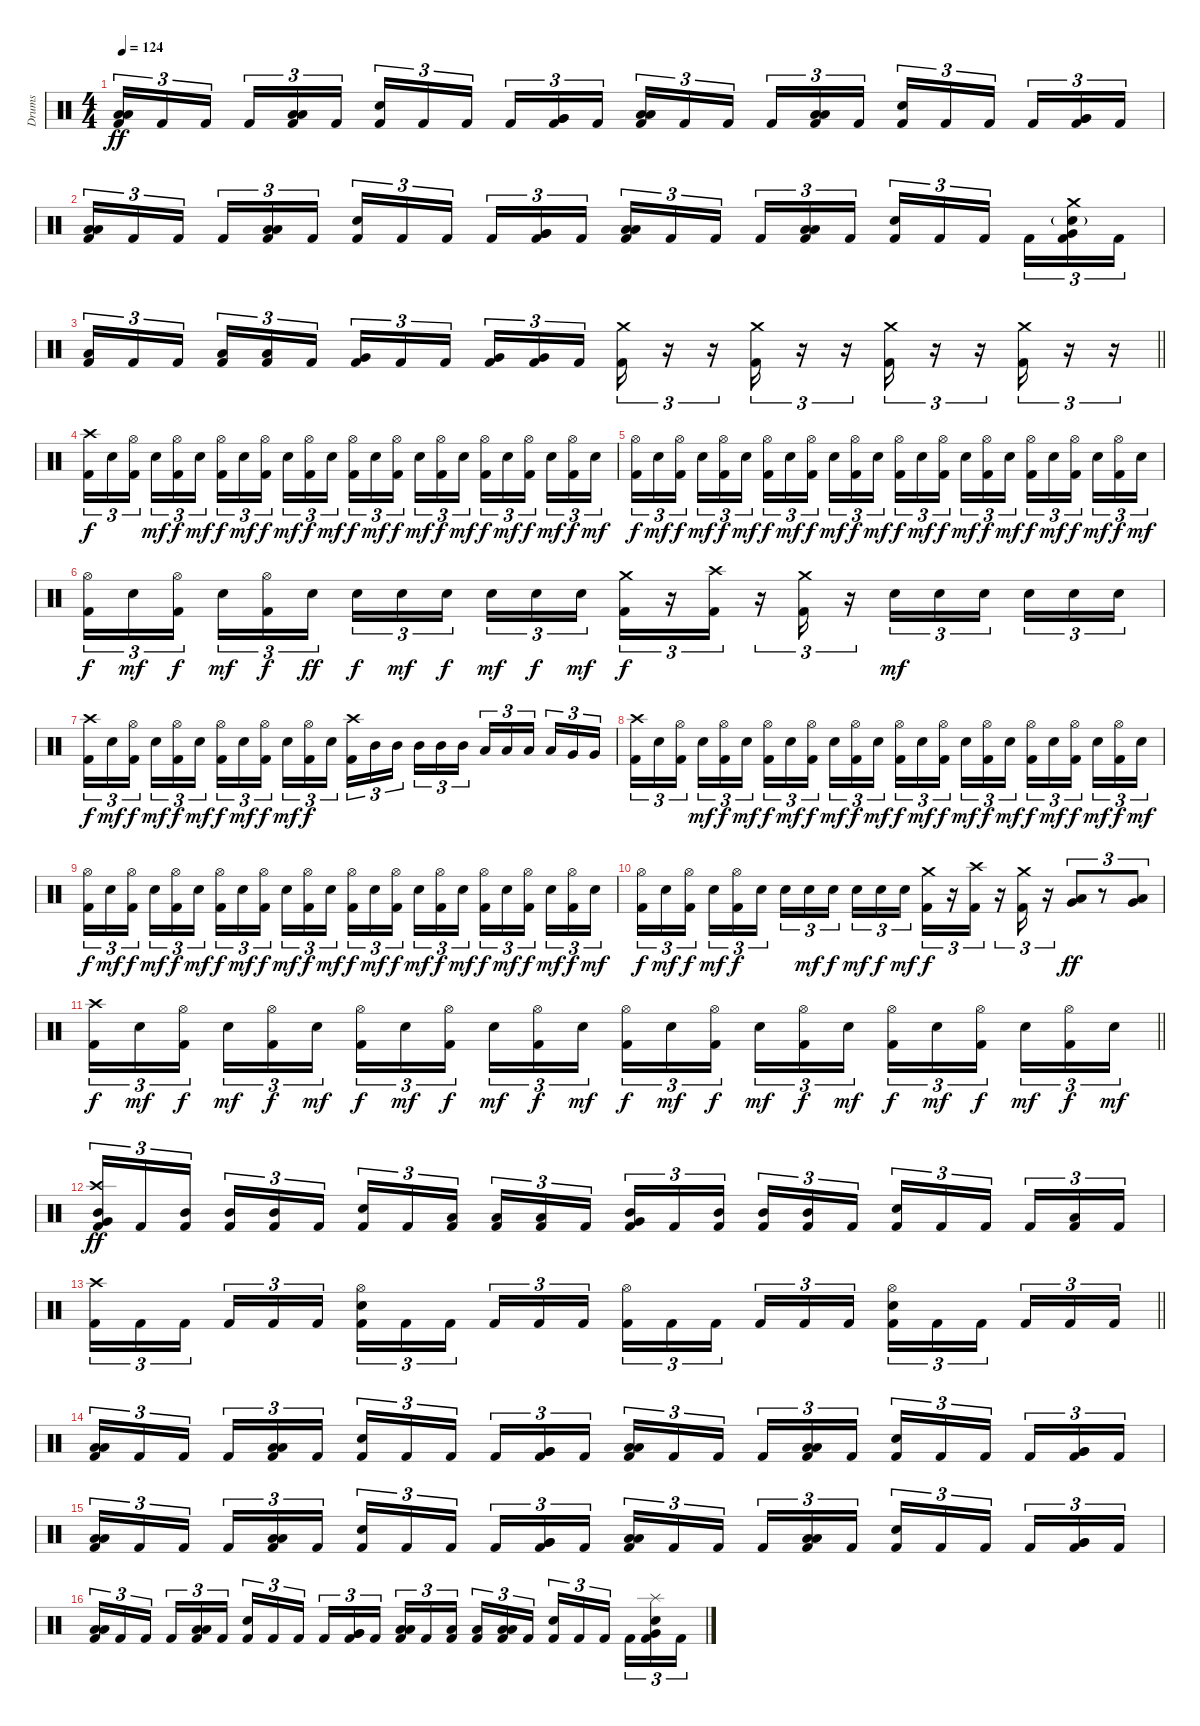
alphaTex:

\track ("Drums" "Drums") {instrument percussion}
\staff {score}
\articulation defaults
\ts (4 4)
\tempo 124
\clef neutral
\ks c
("Low Tom (hit)" "Low Tom (hit)" "Kick (hit) 2").16{tu (3 2) dy ff} "Kick (hit) 2".16{tu (3 2)} "Kick (hit) 2".16{tu (3 2)} "Kick (hit) 2".16{tu (3 2)} ("Low Tom (hit)" "Low Tom (hit)" "Kick (hit) 2").16{tu (3 2)} "Kick (hit) 2".16{tu (3 2)} ("Electric Snare (hit)" "Kick (hit) 2").16{tu (3 2)} "Kick (hit) 2".16{tu (3 2)} "Kick (hit) 2".16{tu (3 2)} "Kick (hit) 2".16{tu (3 2)} ("Very Low Tom (hit)" "Very Low Tom (hit)" "Kick (hit) 2").16{tu (3 2)} "Kick (hit) 2".16{tu (3 2)} ("Low Tom (hit)" "Low Tom (hit)" "Kick (hit) 2").16{tu (3 2)} "Kick (hit) 2".16{tu (3 2)} "Kick (hit) 2".16{tu (3 2)} "Kick (hit) 2".16{tu (3 2)} ("Low Tom (hit)" "Low Tom (hit)" "Kick (hit) 2").16{tu (3 2)} "Kick (hit) 2".16{tu (3 2)} ("Electric Snare (hit)" "Kick (hit) 2").16{tu (3 2)} "Kick (hit) 2".16{tu (3 2)} "Kick (hit) 2".16{tu (3 2)} "Kick (hit) 2".16{tu (3 2)} ("Very Low Tom (hit)" "Very Low Tom (hit)" "Kick (hit) 2").16{tu (3 2)} "Kick (hit) 2".16{tu (3 2)} |
("Low Tom (hit)" "Low Tom (hit)" "Kick (hit) 2").16{tu (3 2)} "Kick (hit) 2".16{tu (3 2)} "Kick (hit) 2".16{tu (3 2)} "Kick (hit) 2".16{tu (3 2)} ("Low Tom (hit)" "Low Tom (hit)" "Kick (hit) 2").16{tu (3 2)} "Kick (hit) 2".16{tu (3 2)} ("Electric Snare (hit)" "Kick (hit) 2").16{tu (3 2)} "Kick (hit) 2".16{tu (3 2)} "Kick (hit) 2".16{tu (3 2)} "Kick (hit) 2".16{tu (3 2)} ("Very Low Tom (hit)" "Very Low Tom (hit)" "Kick (hit) 2").16{tu (3 2)} "Kick (hit) 2".16{tu (3 2)} ("Low Tom (hit)" "Low Tom (hit)" "Kick (hit) 2").16{tu (3 2)} "Kick (hit) 2".16{tu (3 2)} "Kick (hit) 2".16{tu (3 2)} "Kick (hit) 2".16{tu (3 2)} ("Low Tom (hit)" "Low Tom (hit)" "Kick (hit) 2").16{tu (3 2)} "Kick (hit) 2".16{tu (3 2)} ("Electric Snare (hit)" "Kick (hit) 2").16{tu (3 2)} "Kick (hit) 2".16{tu (3 2)} "Kick (hit) 2".16{tu (3 2)} "Kick (hit) 2".16{tu (3 2)} ("Crash medium (hit)" "Electric Snare (hit)"{g} "Very Low Tom (hit)" "Kick (hit) 2").16{tu (3 2)} "Kick (hit) 2".16{tu (3 2)} |
\barLineRight lightlight
("Low Tom (hit)" "Kick (hit) 2").16{tu (3 2)} "Kick (hit) 2".16{tu (3 2)} "Kick (hit) 2".16{tu (3 2)} ("Low Tom (hit)" "Kick (hit) 2").16{tu (3 2)} ("Low Tom (hit)" "Kick (hit) 2").16{tu (3 2)} "Kick (hit) 2".16{tu (3 2)} ("Very Low Tom (hit)" "Kick (hit) 2").16{tu (3 2)} "Kick (hit) 2".16{tu (3 2)} "Kick (hit) 2".16{tu (3 2)} ("Very Low Tom (hit)" "Kick (hit) 2").16{tu (3 2)} ("Very Low Tom (hit)" "Kick (hit) 2").16{tu (3 2)} "Kick (hit) 2".16{tu (3 2)} ("Crash medium (hit)" "Kick (hit) 2").16{tu (3 2)} r.16{tu (3 2)} r.16{tu (3 2)} ("Crash medium (hit)" "Kick (hit) 2").16{tu (3 2)} r.16{tu (3 2)} r.16{tu (3 2)} ("Crash medium (hit)" "Kick (hit) 2").16{tu (3 2)} r.16{tu (3 2)} r.16{tu (3 2)} ("Crash medium (hit)" "Kick (hit) 2").16{tu (3 2)} r.16{tu (3 2)} r.16{tu (3 2)} |
("Crash high (hit)" "Kick (hit) 2").16{tu (3 2) dy f} "Electric Snare (hit)".16{tu (3 2)} ("Hi-Hat (open)" "Kick (hit) 2").16{tu (3 2)} "Electric Snare (hit)".16{tu (3 2) dy mf} ("Hi-Hat (open)" "Kick (hit) 2").16{tu (3 2) dy f} "Electric Snare (hit)".16{tu (3 2) dy mf} ("Hi-Hat (open)" "Kick (hit) 2").16{tu (3 2) dy f} "Electric Snare (hit)".16{tu (3 2) dy mf} ("Hi-Hat (open)" "Kick (hit) 2").16{tu (3 2) dy f} "Electric Snare (hit)".16{tu (3 2) dy mf} ("Hi-Hat (open)" "Kick (hit) 2").16{tu (3 2) dy f} "Electric Snare (hit)".16{tu (3 2) dy mf} ("Hi-Hat (open)" "Kick (hit) 2").16{tu (3 2) dy f} "Electric Snare (hit)".16{tu (3 2) dy mf} ("Hi-Hat (open)" "Kick (hit) 2").16{tu (3 2) dy f} "Electric Snare (hit)".16{tu (3 2) dy mf} ("Hi-Hat (open)" "Kick (hit) 2").16{tu (3 2) dy f} "Electric Snare (hit)".16{tu (3 2) dy mf} ("Hi-Hat (open)" "Kick (hit) 2").16{tu (3 2) dy f} "Electric Snare (hit)".16{tu (3 2) dy mf} ("Hi-Hat (open)" "Kick (hit) 2").16{tu (3 2) dy f} "Electric Snare (hit)".16{tu (3 2) dy mf} ("Hi-Hat (open)" "Kick (hit) 2").16{tu (3 2) dy f} "Electric Snare (hit)".16{tu (3 2) dy mf} |
("Hi-Hat (open)" "Kick (hit) 2").16{tu (3 2) dy f} "Electric Snare (hit)".16{tu (3 2) dy mf} ("Hi-Hat (open)" "Kick (hit) 2").16{tu (3 2) dy f} "Electric Snare (hit)".16{tu (3 2) dy mf} ("Hi-Hat (open)" "Kick (hit) 2").16{tu (3 2) dy f} "Electric Snare (hit)".16{tu (3 2) dy mf} ("Hi-Hat (open)" "Kick (hit) 2").16{tu (3 2) dy f} "Electric Snare (hit)".16{tu (3 2) dy mf} ("Hi-Hat (open)" "Kick (hit) 2").16{tu (3 2) dy f} "Electric Snare (hit)".16{tu (3 2) dy mf} ("Hi-Hat (open)" "Kick (hit) 2").16{tu (3 2) dy f} "Electric Snare (hit)".16{tu (3 2) dy mf} ("Hi-Hat (open)" "Kick (hit) 2").16{tu (3 2) dy f} "Electric Snare (hit)".16{tu (3 2) dy mf} ("Hi-Hat (open)" "Kick (hit) 2").16{tu (3 2) dy f} "Electric Snare (hit)".16{tu (3 2) dy mf} ("Hi-Hat (open)" "Kick (hit) 2").16{tu (3 2) dy f} "Electric Snare (hit)".16{tu (3 2) dy mf} ("Hi-Hat (open)" "Kick (hit) 2").16{tu (3 2) dy f} "Electric Snare (hit)".16{tu (3 2) dy mf} ("Hi-Hat (open)" "Kick (hit) 2").16{tu (3 2) dy f} "Electric Snare (hit)".16{tu (3 2) dy mf} ("Hi-Hat (open)" "Kick (hit) 2").16{tu (3 2) dy f} "Electric Snare (hit)".16{tu (3 2) dy mf} |
("Hi-Hat (open)" "Kick (hit) 2").16{tu (3 2) dy f} "Electric Snare (hit)".16{tu (3 2) dy mf} ("Hi-Hat (open)" "Kick (hit) 2").16{tu (3 2) dy f} "Electric Snare (hit)".16{tu (3 2) dy mf} ("Hi-Hat (open)" "Kick (hit) 2").16{tu (3 2) dy f} "Electric Snare (hit)".16{tu (3 2) dy ff} "Electric Snare (hit)".16{tu (3 2) dy f} "Electric Snare (hit)".16{tu (3 2) dy mf} "Electric Snare (hit)".16{tu (3 2) dy f} "Electric Snare (hit)".16{tu (3 2) dy mf} "Electric Snare (hit)".16{tu (3 2) dy f} "Electric Snare (hit)".16{tu (3 2) dy mf} ("Crash medium (hit)" "Kick (hit) 2").16{tu (3 2) dy f} r.16{tu (3 2)} ("Crash high (hit)" "Kick (hit) 2").16{tu (3 2)} r.16{tu (3 2)} ("Crash medium (hit)" "Kick (hit) 2").16{tu (3 2)} r.16{tu (3 2)} "Electric Snare (hit)".16{tu (3 2) dy mf} "Electric Snare (hit)".16{tu (3 2)} "Electric Snare (hit)".16{tu (3 2)} "Electric Snare (hit)".16{tu (3 2)} "Electric Snare (hit)".16{tu (3 2)} "Electric Snare (hit)".16{tu (3 2)} |
("Crash high (hit)" "Kick (hit) 2").16{tu (3 2) dy f} "Electric Snare (hit)".16{tu (3 2) dy mf} ("Hi-Hat (open)" "Kick (hit) 2").16{tu (3 2) dy f} "Electric Snare (hit)".16{tu (3 2) dy mf} ("Hi-Hat (open)" "Kick (hit) 2").16{tu (3 2) dy f} "Electric Snare (hit)".16{tu (3 2) dy mf} ("Hi-Hat (open)" "Kick (hit) 2").16{tu (3 2) dy f} "Electric Snare (hit)".16{tu (3 2) dy mf} ("Hi-Hat (open)" "Kick (hit) 2").16{tu (3 2) dy f} "Electric Snare (hit)".16{tu (3 2) dy mf} ("Hi-Hat (open)" "Kick (hit) 2").16{tu (3 2) dy f} "Electric Snare (hit)".16{tu (3 2)} ("Crash high (hit)" "Kick (hit) 2").16{tu (3 2)} "Mid Tom (hit)".16{tu (3 2)} "Mid Tom (hit)".16{tu (3 2)} "Mid Tom (hit)".16{tu (3 2)} "Mid Tom (hit)".16{tu (3 2)} "Mid Tom (hit)".16{tu (3 2)} "Low Tom (hit)".16{tu (3 2)} "Low Tom (hit)".16{tu (3 2)} "Low Tom (hit)".16{tu (3 2)} "Low Tom (hit)".16{tu (3 2)} "Very Low Tom (hit)".16{tu (3 2)} "Very Low Tom (hit)".16{tu (3 2)} |
("Crash high (hit)" "Kick (hit) 2").16{tu (3 2)} "Electric Snare (hit)".16{tu (3 2)} ("Hi-Hat (open)" "Kick (hit) 2").16{tu (3 2)} "Electric Snare (hit)".16{tu (3 2) dy mf} ("Hi-Hat (open)" "Kick (hit) 2").16{tu (3 2) dy f} "Electric Snare (hit)".16{tu (3 2) dy mf} ("Hi-Hat (open)" "Kick (hit) 2").16{tu (3 2) dy f} "Electric Snare (hit)".16{tu (3 2) dy mf} ("Hi-Hat (open)" "Kick (hit) 2").16{tu (3 2) dy f} "Electric Snare (hit)".16{tu (3 2) dy mf} ("Hi-Hat (open)" "Kick (hit) 2").16{tu (3 2) dy f} "Electric Snare (hit)".16{tu (3 2) dy mf} ("Hi-Hat (open)" "Kick (hit) 2").16{tu (3 2) dy f} "Electric Snare (hit)".16{tu (3 2) dy mf} ("Hi-Hat (open)" "Kick (hit) 2").16{tu (3 2) dy f} "Electric Snare (hit)".16{tu (3 2) dy mf} ("Hi-Hat (open)" "Kick (hit) 2").16{tu (3 2) dy f} "Electric Snare (hit)".16{tu (3 2) dy mf} ("Hi-Hat (open)" "Kick (hit) 2").16{tu (3 2) dy f} "Electric Snare (hit)".16{tu (3 2) dy mf} ("Hi-Hat (open)" "Kick (hit) 2").16{tu (3 2) dy f} "Electric Snare (hit)".16{tu (3 2) dy mf} ("Hi-Hat (open)" "Kick (hit) 2").16{tu (3 2) dy f} "Electric Snare (hit)".16{tu (3 2) dy mf} |
("Hi-Hat (open)" "Kick (hit) 2").16{tu (3 2) dy f} "Electric Snare (hit)".16{tu (3 2) dy mf} ("Hi-Hat (open)" "Kick (hit) 2").16{tu (3 2) dy f} "Electric Snare (hit)".16{tu (3 2) dy mf} ("Hi-Hat (open)" "Kick (hit) 2").16{tu (3 2) dy f} "Electric Snare (hit)".16{tu (3 2) dy mf} ("Hi-Hat (open)" "Kick (hit) 2").16{tu (3 2) dy f} "Electric Snare (hit)".16{tu (3 2) dy mf} ("Hi-Hat (open)" "Kick (hit) 2").16{tu (3 2) dy f} "Electric Snare (hit)".16{tu (3 2) dy mf} ("Hi-Hat (open)" "Kick (hit) 2").16{tu (3 2) dy f} "Electric Snare (hit)".16{tu (3 2) dy mf} ("Hi-Hat (open)" "Kick (hit) 2").16{tu (3 2) dy f} "Electric Snare (hit)".16{tu (3 2) dy mf} ("Hi-Hat (open)" "Kick (hit) 2").16{tu (3 2) dy f} "Electric Snare (hit)".16{tu (3 2) dy mf} ("Hi-Hat (open)" "Kick (hit) 2").16{tu (3 2) dy f} "Electric Snare (hit)".16{tu (3 2) dy mf} ("Hi-Hat (open)" "Kick (hit) 2").16{tu (3 2) dy f} "Electric Snare (hit)".16{tu (3 2) dy mf} ("Hi-Hat (open)" "Kick (hit) 2").16{tu (3 2) dy f} "Electric Snare (hit)".16{tu (3 2) dy mf} ("Hi-Hat (open)" "Kick (hit) 2").16{tu (3 2) dy f} "Electric Snare (hit)".16{tu (3 2) dy mf} |
("Hi-Hat (open)" "Kick (hit) 2").16{tu (3 2) dy f} "Electric Snare (hit)".16{tu (3 2) dy mf} ("Hi-Hat (open)" "Kick (hit) 2").16{tu (3 2) dy f} "Electric Snare (hit)".16{tu (3 2) dy mf} ("Hi-Hat (open)" "Kick (hit) 2").16{tu (3 2) dy f} "Electric Snare (hit)".16{tu (3 2)} "Electric Snare (hit)".16{tu (3 2)} "Electric Snare (hit)".16{tu (3 2) dy mf} "Electric Snare (hit)".16{tu (3 2) dy f} "Electric Snare (hit)".16{tu (3 2) dy mf} "Electric Snare (hit)".16{tu (3 2) dy f} "Electric Snare (hit)".16{tu (3 2) dy mf} ("Crash medium (hit)" "Kick (hit) 2").16{tu (3 2) dy f} r.16{tu (3 2)} ("Crash high (hit)" "Kick (hit) 2").16{tu (3 2)} r.16{tu (3 2)} ("Crash medium (hit)" "Kick (hit) 2").16{tu (3 2)} r.16{tu (3 2)} ("Low Tom (hit)" "Very Low Tom (hit)").8{tu (3 2) dy ff} r.8{tu (3 2)} ("Very Low Tom (hit)" "Low Floor Tom (hit)").8{tu (3 2)} |
\barLineRight lightlight
("Crash high (hit)" "Kick (hit) 2").16{tu (3 2) dy f} "Electric Snare (hit)".16{tu (3 2) dy mf} ("Hi-Hat (open)" "Kick (hit) 2").16{tu (3 2) dy f} "Electric Snare (hit)".16{tu (3 2) dy mf} ("Hi-Hat (open)" "Kick (hit) 2").16{tu (3 2) dy f} "Electric Snare (hit)".16{tu (3 2) dy mf} ("Hi-Hat (open)" "Kick (hit) 2").16{tu (3 2) dy f} "Electric Snare (hit)".16{tu (3 2) dy mf} ("Hi-Hat (open)" "Kick (hit) 2").16{tu (3 2) dy f} "Electric Snare (hit)".16{tu (3 2) dy mf} ("Hi-Hat (open)" "Kick (hit) 2").16{tu (3 2) dy f} "Electric Snare (hit)".16{tu (3 2) dy mf} ("Hi-Hat (open)" "Kick (hit) 2").16{tu (3 2) dy f} "Electric Snare (hit)".16{tu (3 2) dy mf} ("Hi-Hat (open)" "Kick (hit) 2").16{tu (3 2) dy f} "Electric Snare (hit)".16{tu (3 2) dy mf} ("Hi-Hat (open)" "Kick (hit) 2").16{tu (3 2) dy f} "Electric Snare (hit)".16{tu (3 2) dy mf} ("Hi-Hat (open)" "Kick (hit) 2").16{tu (3 2) dy f} "Electric Snare (hit)".16{tu (3 2) dy mf} ("Hi-Hat (open)" "Kick (hit) 2").16{tu (3 2) dy f} "Electric Snare (hit)".16{tu (3 2) dy mf} ("Hi-Hat (open)" "Kick (hit) 2").16{tu (3 2) dy f} "Electric Snare (hit)".16{tu (3 2) dy mf} |
("Crash high (hit)" "Mid Tom (hit)" "Very Low Tom (hit)" "Kick (hit) 2").16{tu (3 2) dy ff} "Kick (hit) 2".16{tu (3 2)} ("Mid Tom (hit)" "Kick (hit) 2").16{tu (3 2)} ("Mid Tom (hit)" "Kick (hit) 2").16{tu (3 2)} ("Mid Tom (hit)" "Kick (hit) 2").16{tu (3 2)} "Kick (hit) 2".16{tu (3 2)} ("Electric Snare (hit)" "Kick (hit) 2").16{tu (3 2)} "Kick (hit) 2".16{tu (3 2)} ("Low Tom (hit)" "Kick (hit) 2").16{tu (3 2)} ("Low Tom (hit)" "Kick (hit) 2").16{tu (3 2)} ("Low Tom (hit)" "Kick (hit) 2").16{tu (3 2)} "Kick (hit) 2".16{tu (3 2)} ("Mid Tom (hit)" "Very Low Tom (hit)" "Kick (hit) 2").16{tu (3 2)} "Kick (hit) 2".16{tu (3 2)} ("Mid Tom (hit)" "Kick (hit) 2").16{tu (3 2)} ("Mid Tom (hit)" "Kick (hit) 2").16{tu (3 2)} ("Mid Tom (hit)" "Kick (hit) 2").16{tu (3 2)} "Kick (hit) 2".16{tu (3 2)} ("Electric Snare (hit)" "Kick (hit) 2").16{tu (3 2)} "Kick (hit) 2".16{tu (3 2)} "Kick (hit) 2".16{tu (3 2)} "Kick (hit) 2".16{tu (3 2)} ("Low Tom (hit)" "Kick (hit) 2").16{tu (3 2)} "Kick (hit) 2".16{tu (3 2)} |
\barLineRight lightlight
("Crash high (hit)" "Kick (hit) 2").16{tu (3 2)} "Kick (hit) 2".16{tu (3 2)} "Kick (hit) 2".16{tu (3 2)} "Kick (hit) 2".16{tu (3 2)} "Kick (hit) 2".16{tu (3 2)} "Kick (hit) 2".16{tu (3 2)} ("Hi-Hat (open)" "Electric Snare (hit)" "Kick (hit) 2").16{tu (3 2)} "Kick (hit) 2".16{tu (3 2)} "Kick (hit) 2".16{tu (3 2)} "Kick (hit) 2".16{tu (3 2)} "Kick (hit) 2".16{tu (3 2)} "Kick (hit) 2".16{tu (3 2)} ("Hi-Hat (open)" "Kick (hit) 2").16{tu (3 2)} "Kick (hit) 2".16{tu (3 2)} "Kick (hit) 2".16{tu (3 2)} "Kick (hit) 2".16{tu (3 2)} "Kick (hit) 2".16{tu (3 2)} "Kick (hit) 2".16{tu (3 2)} ("Hi-Hat (open)" "Electric Snare (hit)" "Kick (hit) 2").16{tu (3 2)} "Kick (hit) 2".16{tu (3 2)} "Kick (hit) 2".16{tu (3 2)} "Kick (hit) 2".16{tu (3 2)} "Kick (hit) 2".16{tu (3 2)} "Kick (hit) 2".16{tu (3 2)} |
("Low Tom (hit)" "Low Tom (hit)" "Kick (hit) 2").16{tu (3 2)} "Kick (hit) 2".16{tu (3 2)} "Kick (hit) 2".16{tu (3 2)} "Kick (hit) 2".16{tu (3 2)} ("Low Tom (hit)" "Low Tom (hit)" "Kick (hit) 2").16{tu (3 2)} "Kick (hit) 2".16{tu (3 2)} ("Electric Snare (hit)" "Kick (hit) 2").16{tu (3 2)} "Kick (hit) 2".16{tu (3 2)} "Kick (hit) 2".16{tu (3 2)} "Kick (hit) 2".16{tu (3 2)} ("Very Low Tom (hit)" "Very Low Tom (hit)" "Kick (hit) 2").16{tu (3 2)} "Kick (hit) 2".16{tu (3 2)} ("Low Tom (hit)" "Low Tom (hit)" "Kick (hit) 2").16{tu (3 2)} "Kick (hit) 2".16{tu (3 2)} "Kick (hit) 2".16{tu (3 2)} "Kick (hit) 2".16{tu (3 2)} ("Low Tom (hit)" "Low Tom (hit)" "Kick (hit) 2").16{tu (3 2)} "Kick (hit) 2".16{tu (3 2)} ("Electric Snare (hit)" "Kick (hit) 2").16{tu (3 2)} "Kick (hit) 2".16{tu (3 2)} "Kick (hit) 2".16{tu (3 2)} "Kick (hit) 2".16{tu (3 2)} ("Very Low Tom (hit)" "Very Low Tom (hit)" "Kick (hit) 2").16{tu (3 2)} "Kick (hit) 2".16{tu (3 2)} |
("Low Tom (hit)" "Low Tom (hit)" "Kick (hit) 2").16{tu (3 2)} "Kick (hit) 2".16{tu (3 2)} "Kick (hit) 2".16{tu (3 2)} "Kick (hit) 2".16{tu (3 2)} ("Low Tom (hit)" "Low Tom (hit)" "Kick (hit) 2").16{tu (3 2)} "Kick (hit) 2".16{tu (3 2)} ("Electric Snare (hit)" "Kick (hit) 2").16{tu (3 2)} "Kick (hit) 2".16{tu (3 2)} "Kick (hit) 2".16{tu (3 2)} "Kick (hit) 2".16{tu (3 2)} ("Very Low Tom (hit)" "Very Low Tom (hit)" "Kick (hit) 2").16{tu (3 2)} "Kick (hit) 2".16{tu (3 2)} ("Low Tom (hit)" "Low Tom (hit)" "Kick (hit) 2").16{tu (3 2)} "Kick (hit) 2".16{tu (3 2)} "Kick (hit) 2".16{tu (3 2)} "Kick (hit) 2".16{tu (3 2)} ("Low Tom (hit)" "Low Tom (hit)" "Kick (hit) 2").16{tu (3 2)} "Kick (hit) 2".16{tu (3 2)} ("Electric Snare (hit)" "Kick (hit) 2").16{tu (3 2)} "Kick (hit) 2".16{tu (3 2)} "Kick (hit) 2".16{tu (3 2)} "Kick (hit) 2".16{tu (3 2)} ("Very Low Tom (hit)" "Very Low Tom (hit)" "Kick (hit) 2").16{tu (3 2)} "Kick (hit) 2".16{tu (3 2)} |
("Low Tom (hit)" "Low Tom (hit)" "Kick (hit) 2").16{tu (3 2)} "Kick (hit) 2".16{tu (3 2)} "Kick (hit) 2".16{tu (3 2)} "Kick (hit) 2".16{tu (3 2)} ("Low Tom (hit)" "Low Tom (hit)" "Kick (hit) 2").16{tu (3 2)} "Kick (hit) 2".16{tu (3 2)} ("Electric Snare (hit)" "Kick (hit) 2").16{tu (3 2)} "Kick (hit) 2".16{tu (3 2)} "Kick (hit) 2".16{tu (3 2)} "Kick (hit) 2".16{tu (3 2)} ("Very Low Tom (hit)" "Very Low Tom (hit)" "Kick (hit) 2").16{tu (3 2)} "Kick (hit) 2".16{tu (3 2)} ("Low Tom (hit)" "Low Tom (hit)" "Kick (hit) 2").16{tu (3 2)} "Kick (hit) 2".16{tu (3 2)} ("Low Tom (hit)" "Kick (hit) 2").16{tu (3 2)} ("Low Tom (hit)" "Kick (hit) 2").16{tu (3 2)} ("Low Tom (hit)" "Low Tom (hit)" "Kick (hit) 2").16{tu (3 2)} "Kick (hit) 2".16{tu (3 2)} ("Electric Snare (hit)" "Kick (hit) 2").16{tu (3 2)} "Kick (hit) 2".16{tu (3 2)} "Kick (hit) 2".16{tu (3 2)} "Kick (hit) 2".16{tu (3 2)} ("Splash (hit)" "Electric Snare (hit)" "Very Low Tom (hit)" "Kick (hit) 2").16{tu (3 2)} "Kick (hit) 2".16{tu (3 2)}
